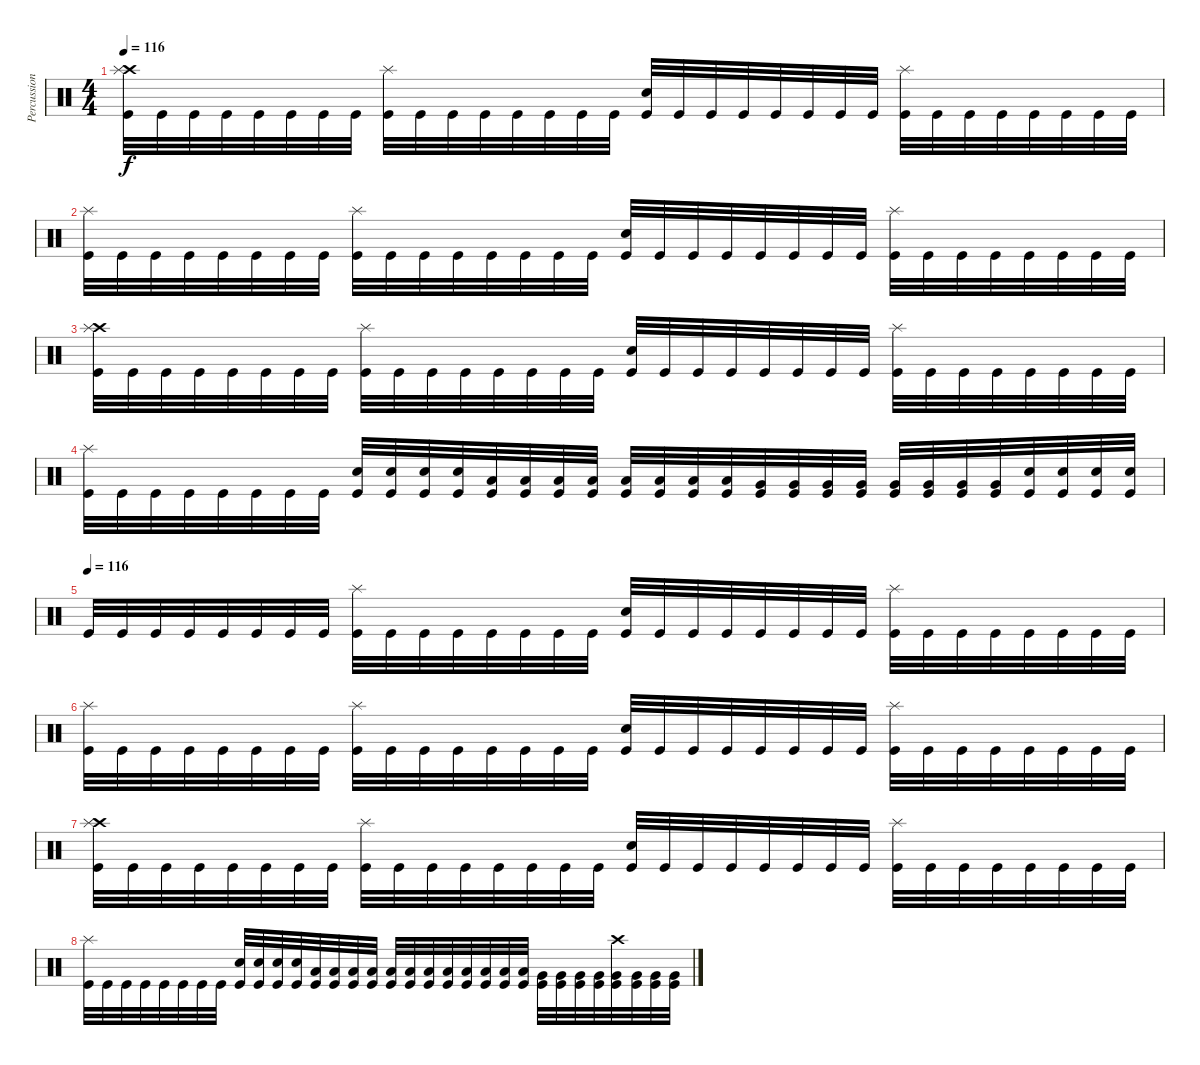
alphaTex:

\track ("Percussion" "Percussion") {instrument percussion}
\staff {score}
\articulation defaults
\ts (4 4)
\tempo 116
\clef neutral
\ks c
("Crash high (hit)" "Splash (hit)" "Kick (hit)").32{dy f} "Kick (hit)".32 "Kick (hit)".32 "Kick (hit)".32 "Kick (hit)".32 "Kick (hit)".32 "Kick (hit)".32 "Kick (hit)".32 ("Splash (hit)" "Kick (hit)").32 "Kick (hit)".32 "Kick (hit)".32 "Kick (hit)".32 "Kick (hit)".32 "Kick (hit)".32 "Kick (hit)".32 "Kick (hit)".32 ("Electric Snare (hit)" "Kick (hit)").32 "Kick (hit)".32 "Kick (hit)".32 "Kick (hit)".32 "Kick (hit)".32 "Kick (hit)".32 "Kick (hit)".32 "Kick (hit)".32 ("Splash (hit)" "Kick (hit)").32 "Kick (hit)".32 "Kick (hit)".32 "Kick (hit)".32 "Kick (hit)".32 "Kick (hit)".32 "Kick (hit)".32 "Kick (hit)".32 |
("Splash (hit)" "Kick (hit)").32 "Kick (hit)".32 "Kick (hit)".32 "Kick (hit)".32 "Kick (hit)".32 "Kick (hit)".32 "Kick (hit)".32 "Kick (hit)".32 ("Splash (hit)" "Kick (hit)").32 "Kick (hit)".32 "Kick (hit)".32 "Kick (hit)".32 "Kick (hit)".32 "Kick (hit)".32 "Kick (hit)".32 "Kick (hit)".32 ("Electric Snare (hit)" "Kick (hit)").32 "Kick (hit)".32 "Kick (hit)".32 "Kick (hit)".32 "Kick (hit)".32 "Kick (hit)".32 "Kick (hit)".32 "Kick (hit)".32 ("Splash (hit)" "Kick (hit)").32 "Kick (hit)".32 "Kick (hit)".32 "Kick (hit)".32 "Kick (hit)".32 "Kick (hit)".32 "Kick (hit)".32 "Kick (hit)".32 |
("Crash high (hit)" "Splash (hit)" "Kick (hit)").32 "Kick (hit)".32 "Kick (hit)".32 "Kick (hit)".32 "Kick (hit)".32 "Kick (hit)".32 "Kick (hit)".32 "Kick (hit)".32 ("Splash (hit)" "Kick (hit)").32 "Kick (hit)".32 "Kick (hit)".32 "Kick (hit)".32 "Kick (hit)".32 "Kick (hit)".32 "Kick (hit)".32 "Kick (hit)".32 ("Electric Snare (hit)" "Kick (hit)").32 "Kick (hit)".32 "Kick (hit)".32 "Kick (hit)".32 "Kick (hit)".32 "Kick (hit)".32 "Kick (hit)".32 "Kick (hit)".32 ("Splash (hit)" "Kick (hit)").32 "Kick (hit)".32 "Kick (hit)".32 "Kick (hit)".32 "Kick (hit)".32 "Kick (hit)".32 "Kick (hit)".32 "Kick (hit)".32 |
("Splash (hit)" "Kick (hit)").32 "Kick (hit)".32 "Kick (hit)".32 "Kick (hit)".32 "Kick (hit)".32 "Kick (hit)".32 "Kick (hit)".32 "Kick (hit)".32 ("Electric Snare (hit)" "Kick (hit)").32 ("Electric Snare (hit)" "Kick (hit)").32 ("Electric Snare (hit)" "Kick (hit)").32 ("Electric Snare (hit)" "Kick (hit)").32 ("Low Tom (hit)" "Kick (hit)").32 ("Low Tom (hit)" "Kick (hit)").32 ("Low Tom (hit)" "Kick (hit)").32 ("Low Tom (hit)" "Kick (hit)").32 ("Low Tom (hit)" "Kick (hit)").32 ("Low Tom (hit)" "Kick (hit)").32 ("Low Tom (hit)" "Kick (hit)").32 ("Low Tom (hit)" "Kick (hit)").32 ("Very Low Tom (hit)" "Kick (hit)").32 ("Very Low Tom (hit)" "Kick (hit)").32 ("Very Low Tom (hit)" "Kick (hit)").32 ("Very Low Tom (hit)" "Kick (hit)").32 ("Very Low Tom (hit)" "Kick (hit)").32 ("Very Low Tom (hit)" "Kick (hit)").32 ("Very Low Tom (hit)" "Kick (hit)").32 ("Very Low Tom (hit)" "Kick (hit)").32 ("Electric Snare (hit)" "Kick (hit)").32 ("Electric Snare (hit)" "Kick (hit)").32 ("Electric Snare (hit)" "Kick (hit)").32 ("Electric Snare (hit)" "Kick (hit)").32 |
\tempo 112
\tempo (116)
"Kick (hit)".32 "Kick (hit)".32 "Kick (hit)".32 "Kick (hit)".32 "Kick (hit)".32 "Kick (hit)".32 "Kick (hit)".32 "Kick (hit)".32 ("Splash (hit)" "Kick (hit)").32 "Kick (hit)".32 "Kick (hit)".32 "Kick (hit)".32 "Kick (hit)".32 "Kick (hit)".32 "Kick (hit)".32 "Kick (hit)".32 ("Electric Snare (hit)" "Kick (hit)").32 "Kick (hit)".32 "Kick (hit)".32 "Kick (hit)".32 "Kick (hit)".32 "Kick (hit)".32 "Kick (hit)".32 "Kick (hit)".32 ("Splash (hit)" "Kick (hit)").32 "Kick (hit)".32 "Kick (hit)".32 "Kick (hit)".32 "Kick (hit)".32 "Kick (hit)".32 "Kick (hit)".32 "Kick (hit)".32 |
("Splash (hit)" "Kick (hit)").32 "Kick (hit)".32 "Kick (hit)".32 "Kick (hit)".32 "Kick (hit)".32 "Kick (hit)".32 "Kick (hit)".32 "Kick (hit)".32 ("Splash (hit)" "Kick (hit)").32 "Kick (hit)".32 "Kick (hit)".32 "Kick (hit)".32 "Kick (hit)".32 "Kick (hit)".32 "Kick (hit)".32 "Kick (hit)".32 ("Electric Snare (hit)" "Kick (hit)").32 "Kick (hit)".32 "Kick (hit)".32 "Kick (hit)".32 "Kick (hit)".32 "Kick (hit)".32 "Kick (hit)".32 "Kick (hit)".32 ("Splash (hit)" "Kick (hit)").32 "Kick (hit)".32 "Kick (hit)".32 "Kick (hit)".32 "Kick (hit)".32 "Kick (hit)".32 "Kick (hit)".32 "Kick (hit)".32 |
("Crash high (hit)" "Splash (hit)" "Kick (hit)").32 "Kick (hit)".32 "Kick (hit)".32 "Kick (hit)".32 "Kick (hit)".32 "Kick (hit)".32 "Kick (hit)".32 "Kick (hit)".32 ("Splash (hit)" "Kick (hit)").32 "Kick (hit)".32 "Kick (hit)".32 "Kick (hit)".32 "Kick (hit)".32 "Kick (hit)".32 "Kick (hit)".32 "Kick (hit)".32 ("Electric Snare (hit)" "Kick (hit)").32 "Kick (hit)".32 "Kick (hit)".32 "Kick (hit)".32 "Kick (hit)".32 "Kick (hit)".32 "Kick (hit)".32 "Kick (hit)".32 ("Splash (hit)" "Kick (hit)").32 "Kick (hit)".32 "Kick (hit)".32 "Kick (hit)".32 "Kick (hit)".32 "Kick (hit)".32 "Kick (hit)".32 "Kick (hit)".32 |
("Splash (hit)" "Kick (hit)").32 "Kick (hit)".32 "Kick (hit)".32 "Kick (hit)".32 "Kick (hit)".32 "Kick (hit)".32 "Kick (hit)".32 "Kick (hit)".32 ("Electric Snare (hit)" "Kick (hit)").32 ("Electric Snare (hit)" "Kick (hit)").32 ("Electric Snare (hit)" "Kick (hit)").32 ("Electric Snare (hit)" "Kick (hit)").32 ("Low Tom (hit)" "Kick (hit)").32 ("Low Tom (hit)" "Kick (hit)").32 ("Low Tom (hit)" "Kick (hit)").32 ("Low Tom (hit)" "Kick (hit)").32 ("Low Tom (hit)" "Kick (hit)").32 ("Low Tom (hit)" "Kick (hit)").32 ("Low Tom (hit)" "Kick (hit)").32 ("Low Tom (hit)" "Kick (hit)").32 ("Low Tom (hit)" "Kick (hit)").32 ("Low Tom (hit)" "Kick (hit)").32 ("Low Tom (hit)" "Kick (hit)").32 ("Low Tom (hit)" "Kick (hit)").32 ("Very Low Tom (hit)" "Kick (hit)").32 ("Very Low Tom (hit)" "Kick (hit)").32 ("Very Low Tom (hit)" "Kick (hit)").32 ("Very Low Tom (hit)" "Kick (hit)").32 ("Crash high (hit)" "Very Low Tom (hit)" "Kick (hit)").32 ("Very Low Tom (hit)" "Kick (hit)").32 ("Very Low Tom (hit)" "Kick (hit)").32 ("Very Low Tom (hit)" "Kick (hit)").32
